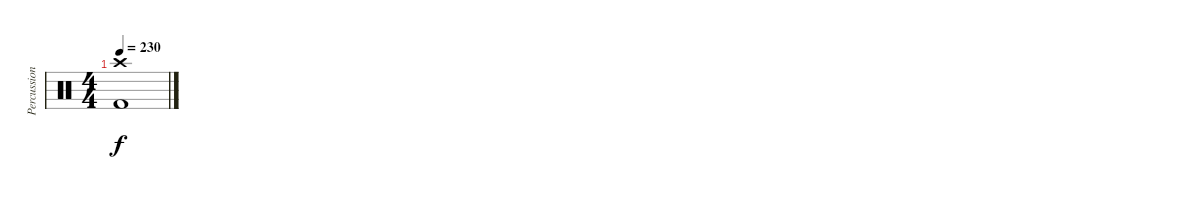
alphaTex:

\track ("Percussion" "Percussion") {instrument percussion}
\staff {score}
\articulation defaults
\ts (4 4)
\tempo 230
\clef neutral
\ks c
("Crash high (hit)" "Kick (hit) 2").1{dy f}
